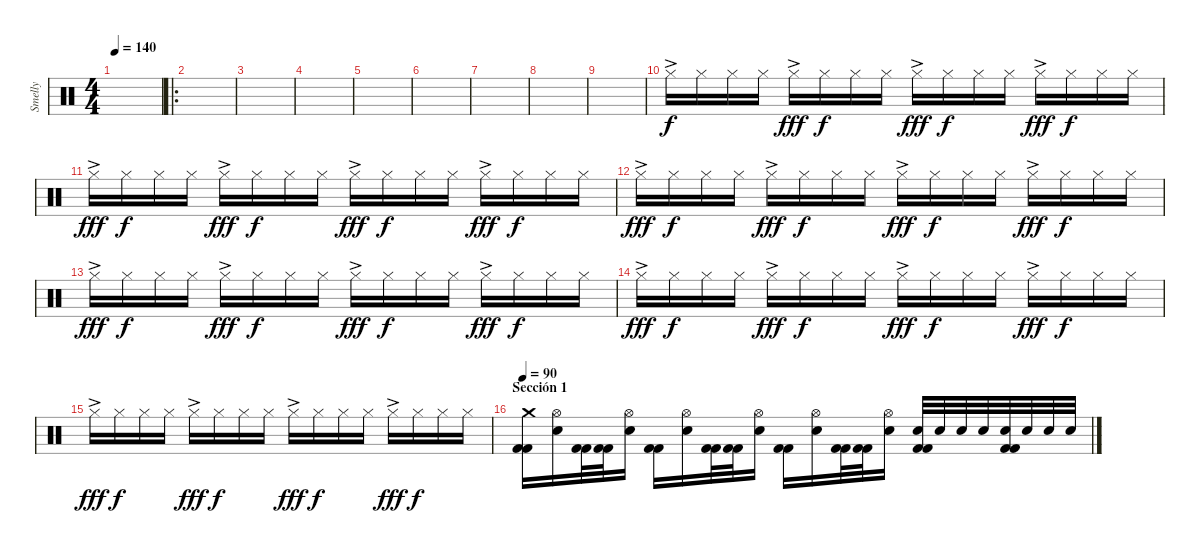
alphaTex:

\track ("Smelly" "Smelly") {instrument percussion}
\staff {score}
\articulation defaults
\ts (4 4)
\tempo 140
\clef neutral
\ks c
|
\ro
|
|
|
|
|
|
|
|
"Hi-Hat (closed)"{ac}.16 "Hi-Hat (closed)".16{dy f} "Hi-Hat (closed)".16 "Hi-Hat (closed)".16 "Hi-Hat (closed)"{ac}.16{dy fff} "Hi-Hat (closed)".16{dy f} "Hi-Hat (closed)".16 "Hi-Hat (closed)".16 "Hi-Hat (closed)"{ac}.16{dy fff} "Hi-Hat (closed)".16{dy f} "Hi-Hat (closed)".16 "Hi-Hat (closed)".16 "Hi-Hat (closed)"{ac}.16{dy fff} "Hi-Hat (closed)".16{dy f} "Hi-Hat (closed)".16 "Hi-Hat (closed)".16 |
"Hi-Hat (closed)"{ac}.16{dy fff} "Hi-Hat (closed)".16{dy f} "Hi-Hat (closed)".16 "Hi-Hat (closed)".16 "Hi-Hat (closed)"{ac}.16{dy fff} "Hi-Hat (closed)".16{dy f} "Hi-Hat (closed)".16 "Hi-Hat (closed)".16 "Hi-Hat (closed)"{ac}.16{dy fff} "Hi-Hat (closed)".16{dy f} "Hi-Hat (closed)".16 "Hi-Hat (closed)".16 "Hi-Hat (closed)"{ac}.16{dy fff} "Hi-Hat (closed)".16{dy f} "Hi-Hat (closed)".16 "Hi-Hat (closed)".16 |
"Hi-Hat (closed)"{ac}.16{dy fff} "Hi-Hat (closed)".16{dy f} "Hi-Hat (closed)".16 "Hi-Hat (closed)".16 "Hi-Hat (closed)"{ac}.16{dy fff} "Hi-Hat (closed)".16{dy f} "Hi-Hat (closed)".16 "Hi-Hat (closed)".16 "Hi-Hat (closed)"{ac}.16{dy fff} "Hi-Hat (closed)".16{dy f} "Hi-Hat (closed)".16 "Hi-Hat (closed)".16 "Hi-Hat (closed)"{ac}.16{dy fff} "Hi-Hat (closed)".16{dy f} "Hi-Hat (closed)".16 "Hi-Hat (closed)".16 |
"Hi-Hat (closed)"{ac}.16{dy fff} "Hi-Hat (closed)".16{dy f} "Hi-Hat (closed)".16 "Hi-Hat (closed)".16 "Hi-Hat (closed)"{ac}.16{dy fff} "Hi-Hat (closed)".16{dy f} "Hi-Hat (closed)".16 "Hi-Hat (closed)".16 "Hi-Hat (closed)"{ac}.16{dy fff} "Hi-Hat (closed)".16{dy f} "Hi-Hat (closed)".16 "Hi-Hat (closed)".16 "Hi-Hat (closed)"{ac}.16{dy fff} "Hi-Hat (closed)".16{dy f} "Hi-Hat (closed)".16 "Hi-Hat (closed)".16 |
"Hi-Hat (closed)"{ac}.16{dy fff} "Hi-Hat (closed)".16{dy f} "Hi-Hat (closed)".16 "Hi-Hat (closed)".16 "Hi-Hat (closed)"{ac}.16{dy fff} "Hi-Hat (closed)".16{dy f} "Hi-Hat (closed)".16 "Hi-Hat (closed)".16 "Hi-Hat (closed)"{ac}.16{dy fff} "Hi-Hat (closed)".16{dy f} "Hi-Hat (closed)".16 "Hi-Hat (closed)".16 "Hi-Hat (closed)"{ac}.16{dy fff} "Hi-Hat (closed)".16{dy f} "Hi-Hat (closed)".16 "Hi-Hat (closed)".16 |
"Hi-Hat (closed)"{ac}.16{dy fff} "Hi-Hat (closed)".16{dy f} "Hi-Hat (closed)".16 "Hi-Hat (closed)".16 "Hi-Hat (closed)"{ac}.16{dy fff} "Hi-Hat (closed)".16{dy f} "Hi-Hat (closed)".16 "Hi-Hat (closed)".16 "Hi-Hat (closed)"{ac}.16{dy fff} "Hi-Hat (closed)".16{dy f} "Hi-Hat (closed)".16 "Hi-Hat (closed)".16 "Hi-Hat (closed)"{ac}.16{dy fff} "Hi-Hat (closed)".16{dy f} "Hi-Hat (closed)".16 "Hi-Hat (closed)".16 |
\section ("" "Sección 1")
\tempo 90
("Crash medium (hit)" "Kick (hit) 2" "Kick (hit) 2").16 ("Hi-Hat (open)" "Electric Snare (hit)").16 ("Kick (hit) 2" "Kick (hit) 2").32 ("Kick (hit) 2" "Kick (hit) 2").32 ("Hi-Hat (open)" "Electric Snare (hit)").16 ("Kick (hit) 2" "Kick (hit) 2").16 ("Hi-Hat (open)" "Electric Snare (hit)").16 ("Kick (hit) 2" "Kick (hit) 2").32 ("Kick (hit) 2" "Kick (hit) 2").32 ("Hi-Hat (open)" "Electric Snare (hit)").16 ("Kick (hit) 2" "Kick (hit) 2").16 ("Hi-Hat (open)" "Electric Snare (hit)").16 ("Kick (hit) 2" "Kick (hit) 2").32 ("Kick (hit) 2" "Kick (hit) 2").32 ("Hi-Hat (open)" "Electric Snare (hit)").16 ("Electric Snare (hit)" "Kick (hit) 2" "Kick (hit) 2").32 "Electric Snare (hit)".32 "Electric Snare (hit)".32 "Electric Snare (hit)".32 ("Electric Snare (hit)" "Kick (hit) 2" "Kick (hit) 2").32 "Electric Snare (hit)".32 "Electric Snare (hit)".32 "Electric Snare (hit)".32
